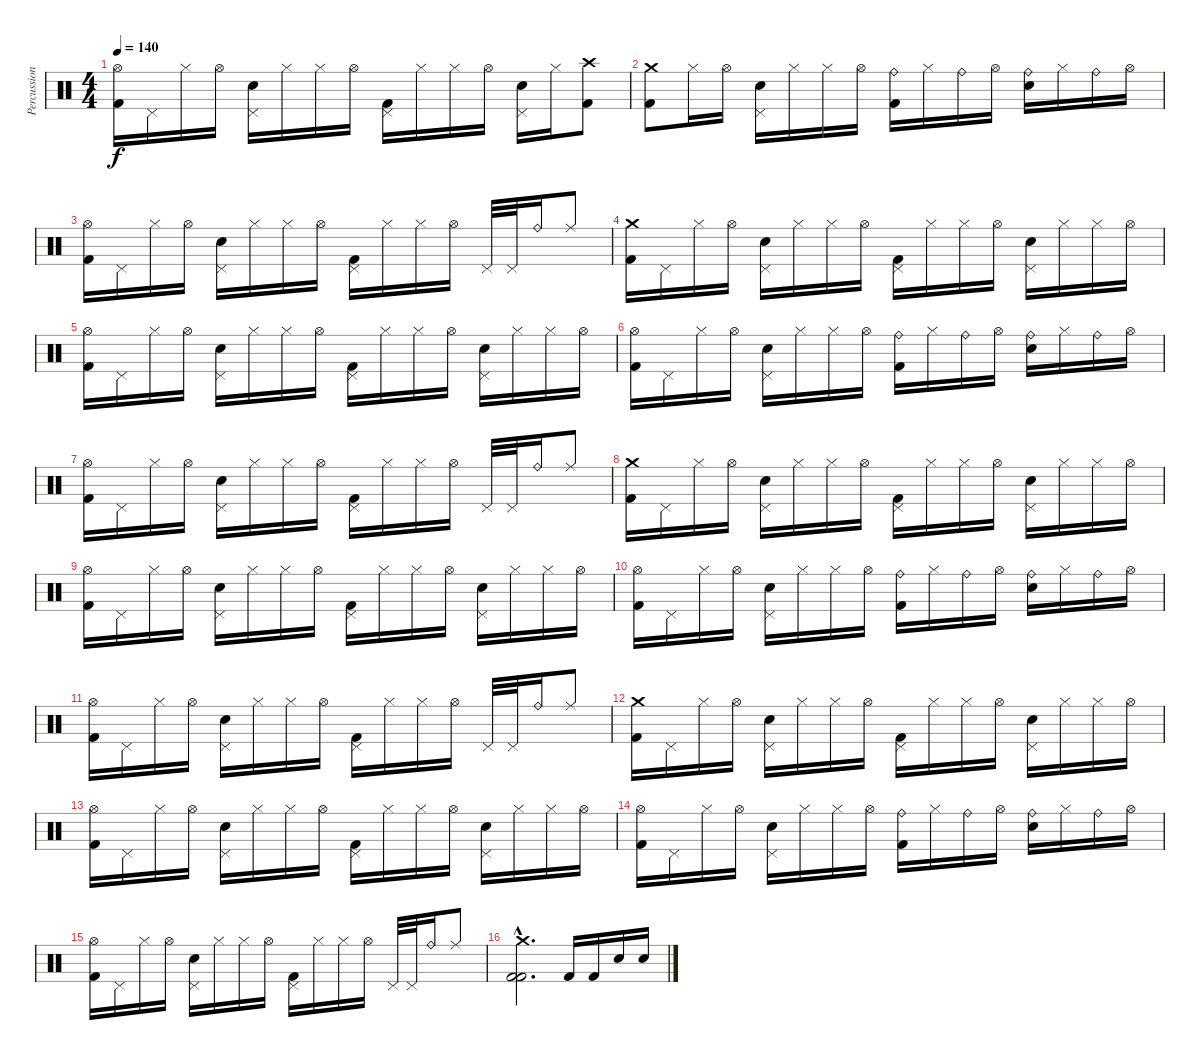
\track ("Percussion" "Percussion") {instrument percussion}
\staff {score}
\articulation defaults
\ts (4 4)
\tempo 140
\clef neutral
\ks c
("Hi-Hat (open)" "Kick (hit) 2").16{dy f} "Pedal Hi-Hat (hit)".16 "Hi-Hat (closed)".16 "Hi-Hat (open)".16 ("Pedal Hi-Hat (hit)" "Electric Snare (hit)").16 "Hi-Hat (closed)".16 "Hi-Hat (closed)".16 "Hi-Hat (open)".16 ("Pedal Hi-Hat (hit)" "Kick (hit) 2").16 "Hi-Hat (closed)".16 "Hi-Hat (closed)".16 "Hi-Hat (open)".16 ("Pedal Hi-Hat (hit)" "Electric Snare (hit)").16 "Hi-Hat (closed)".16 ("Crash high (hit)" "Kick (hit) 2").8 |
("Crash medium (hit)" "Kick (hit) 2").8 "Hi-Hat (closed)".16 "Hi-Hat (open)".16 ("Pedal Hi-Hat (hit)" "Electric Snare (hit)").16 "Hi-Hat (closed)".16 "Hi-Hat (closed)".16 "Hi-Hat (open)".16 ("Ride (bell)" "Kick (hit) 2").16 "Hi-Hat (closed)".16 "Ride (bell)".16 "Hi-Hat (open)".16 ("Ride (bell)" "Electric Snare (hit)").16 "Hi-Hat (closed)".16 "Ride (bell)".16 "Hi-Hat (open)".16 |
("Hi-Hat (open)" "Kick (hit) 2").16 "Pedal Hi-Hat (hit)".16 "Hi-Hat (closed)".16 "Hi-Hat (open)".16 ("Pedal Hi-Hat (hit)" "Electric Snare (hit)").16 "Hi-Hat (closed)".16 "Hi-Hat (closed)".16 "Hi-Hat (open)".16 ("Pedal Hi-Hat (hit)" "Kick (hit) 2").16 "Hi-Hat (closed)".16 "Hi-Hat (closed)".16 "Hi-Hat (open)".16 "Pedal Hi-Hat (hit)".32 "Pedal Hi-Hat (hit)".32 "Ride (bell)".16 "Ride (middle)".8 |
("Crash medium (hit)" "Kick (hit) 2").16 "Pedal Hi-Hat (hit)".16 "Hi-Hat (closed)".16 "Hi-Hat (open)".16 ("Pedal Hi-Hat (hit)" "Electric Snare (hit)").16 "Hi-Hat (closed)".16 "Hi-Hat (closed)".16 "Hi-Hat (open)".16 ("Pedal Hi-Hat (hit)" "Kick (hit) 2").16 "Hi-Hat (closed)".16 "Hi-Hat (closed)".16 "Hi-Hat (open)".16 ("Pedal Hi-Hat (hit)" "Electric Snare (hit)").16 "Hi-Hat (closed)".16 "Hi-Hat (closed)".16 "Hi-Hat (open)".16 |
("Hi-Hat (open)" "Kick (hit) 2").16 "Pedal Hi-Hat (hit)".16 "Hi-Hat (closed)".16 "Hi-Hat (open)".16 ("Pedal Hi-Hat (hit)" "Electric Snare (hit)").16 "Hi-Hat (closed)".16 "Hi-Hat (closed)".16 "Hi-Hat (open)".16 ("Pedal Hi-Hat (hit)" "Kick (hit) 2").16 "Hi-Hat (closed)".16 "Hi-Hat (closed)".16 "Hi-Hat (open)".16 ("Pedal Hi-Hat (hit)" "Electric Snare (hit)").16 "Hi-Hat (closed)".16 "Hi-Hat (closed)".16 "Hi-Hat (open)".16 |
("Hi-Hat (open)" "Kick (hit) 2").16 "Pedal Hi-Hat (hit)".16 "Hi-Hat (closed)".16 "Hi-Hat (open)".16 ("Pedal Hi-Hat (hit)" "Electric Snare (hit)").16 "Hi-Hat (closed)".16 "Hi-Hat (closed)".16 "Hi-Hat (open)".16 ("Ride (bell)" "Kick (hit) 2").16 "Hi-Hat (closed)".16 "Ride (bell)".16 "Hi-Hat (open)".16 ("Ride (bell)" "Electric Snare (hit)").16 "Hi-Hat (closed)".16 "Ride (bell)".16 "Hi-Hat (open)".16 |
("Hi-Hat (open)" "Kick (hit) 2").16 "Pedal Hi-Hat (hit)".16 "Hi-Hat (closed)".16 "Hi-Hat (open)".16 ("Pedal Hi-Hat (hit)" "Electric Snare (hit)").16 "Hi-Hat (closed)".16 "Hi-Hat (closed)".16 "Hi-Hat (open)".16 ("Pedal Hi-Hat (hit)" "Kick (hit) 2").16 "Hi-Hat (closed)".16 "Hi-Hat (closed)".16 "Hi-Hat (open)".16 "Pedal Hi-Hat (hit)".32 "Pedal Hi-Hat (hit)".32 "Ride (bell)".16 "Ride (middle)".8 |
("Crash medium (hit)" "Kick (hit) 2").16 "Pedal Hi-Hat (hit)".16 "Hi-Hat (closed)".16 "Hi-Hat (open)".16 ("Pedal Hi-Hat (hit)" "Electric Snare (hit)").16 "Hi-Hat (closed)".16 "Hi-Hat (closed)".16 "Hi-Hat (open)".16 ("Pedal Hi-Hat (hit)" "Kick (hit) 2").16 "Hi-Hat (closed)".16 "Hi-Hat (closed)".16 "Hi-Hat (open)".16 ("Pedal Hi-Hat (hit)" "Electric Snare (hit)").16 "Hi-Hat (closed)".16 "Hi-Hat (closed)".16 "Hi-Hat (open)".16 |
("Hi-Hat (open)" "Kick (hit) 2").16 "Pedal Hi-Hat (hit)".16 "Hi-Hat (closed)".16 "Hi-Hat (open)".16 ("Pedal Hi-Hat (hit)" "Electric Snare (hit)").16 "Hi-Hat (closed)".16 "Hi-Hat (closed)".16 "Hi-Hat (open)".16 ("Pedal Hi-Hat (hit)" "Kick (hit) 2").16 "Hi-Hat (closed)".16 "Hi-Hat (closed)".16 "Hi-Hat (open)".16 ("Pedal Hi-Hat (hit)" "Electric Snare (hit)").16 "Hi-Hat (closed)".16 "Hi-Hat (closed)".16 "Hi-Hat (open)".16 |
("Hi-Hat (open)" "Kick (hit) 2").16 "Pedal Hi-Hat (hit)".16 "Hi-Hat (closed)".16 "Hi-Hat (open)".16 ("Pedal Hi-Hat (hit)" "Electric Snare (hit)").16 "Hi-Hat (closed)".16 "Hi-Hat (closed)".16 "Hi-Hat (open)".16 ("Ride (bell)" "Kick (hit) 2").16 "Hi-Hat (closed)".16 "Ride (bell)".16 "Hi-Hat (open)".16 ("Ride (bell)" "Electric Snare (hit)").16 "Hi-Hat (closed)".16 "Ride (bell)".16 "Hi-Hat (open)".16 |
("Hi-Hat (open)" "Kick (hit) 2").16 "Pedal Hi-Hat (hit)".16 "Hi-Hat (closed)".16 "Hi-Hat (open)".16 ("Pedal Hi-Hat (hit)" "Electric Snare (hit)").16 "Hi-Hat (closed)".16 "Hi-Hat (closed)".16 "Hi-Hat (open)".16 ("Pedal Hi-Hat (hit)" "Kick (hit) 2").16 "Hi-Hat (closed)".16 "Hi-Hat (closed)".16 "Hi-Hat (open)".16 "Pedal Hi-Hat (hit)".32 "Pedal Hi-Hat (hit)".32 "Ride (bell)".16 "Ride (middle)".8 |
("Crash medium (hit)" "Kick (hit) 2").16 "Pedal Hi-Hat (hit)".16 "Hi-Hat (closed)".16 "Hi-Hat (open)".16 ("Pedal Hi-Hat (hit)" "Electric Snare (hit)").16 "Hi-Hat (closed)".16 "Hi-Hat (closed)".16 "Hi-Hat (open)".16 ("Pedal Hi-Hat (hit)" "Kick (hit) 2").16 "Hi-Hat (closed)".16 "Hi-Hat (closed)".16 "Hi-Hat (open)".16 ("Pedal Hi-Hat (hit)" "Electric Snare (hit)").16 "Hi-Hat (closed)".16 "Hi-Hat (closed)".16 "Hi-Hat (open)".16 |
("Hi-Hat (open)" "Kick (hit) 2").16 "Pedal Hi-Hat (hit)".16 "Hi-Hat (closed)".16 "Hi-Hat (open)".16 ("Pedal Hi-Hat (hit)" "Electric Snare (hit)").16 "Hi-Hat (closed)".16 "Hi-Hat (closed)".16 "Hi-Hat (open)".16 ("Pedal Hi-Hat (hit)" "Kick (hit) 2").16 "Hi-Hat (closed)".16 "Hi-Hat (closed)".16 "Hi-Hat (open)".16 ("Pedal Hi-Hat (hit)" "Electric Snare (hit)").16 "Hi-Hat (closed)".16 "Hi-Hat (closed)".16 "Hi-Hat (open)".16 |
("Hi-Hat (open)" "Kick (hit) 2").16 "Pedal Hi-Hat (hit)".16 "Hi-Hat (closed)".16 "Hi-Hat (open)".16 ("Pedal Hi-Hat (hit)" "Electric Snare (hit)").16 "Hi-Hat (closed)".16 "Hi-Hat (closed)".16 "Hi-Hat (open)".16 ("Ride (bell)" "Kick (hit) 2").16 "Hi-Hat (closed)".16 "Ride (bell)".16 "Hi-Hat (open)".16 ("Ride (bell)" "Electric Snare (hit)").16 "Hi-Hat (closed)".16 "Ride (bell)".16 "Hi-Hat (open)".16 |
("Hi-Hat (open)" "Kick (hit) 2").16 "Pedal Hi-Hat (hit)".16 "Hi-Hat (closed)".16 "Hi-Hat (open)".16 ("Pedal Hi-Hat (hit)" "Electric Snare (hit)").16 "Hi-Hat (closed)".16 "Hi-Hat (closed)".16 "Hi-Hat (open)".16 ("Pedal Hi-Hat (hit)" "Kick (hit) 2").16 "Hi-Hat (closed)".16 "Hi-Hat (closed)".16 "Hi-Hat (open)".16 "Pedal Hi-Hat (hit)".32 "Pedal Hi-Hat (hit)".32 "Ride (bell)".16 "Ride (middle)".8 |
("Crash medium (hit)"{hac} "Kick (hit) 2"{hac} "Kick (hit) 2"{hac}).2{d} "Kick (hit) 2".16 "Kick (hit) 2".16 "Electric Snare (hit)".16 "Electric Snare (hit)".16
